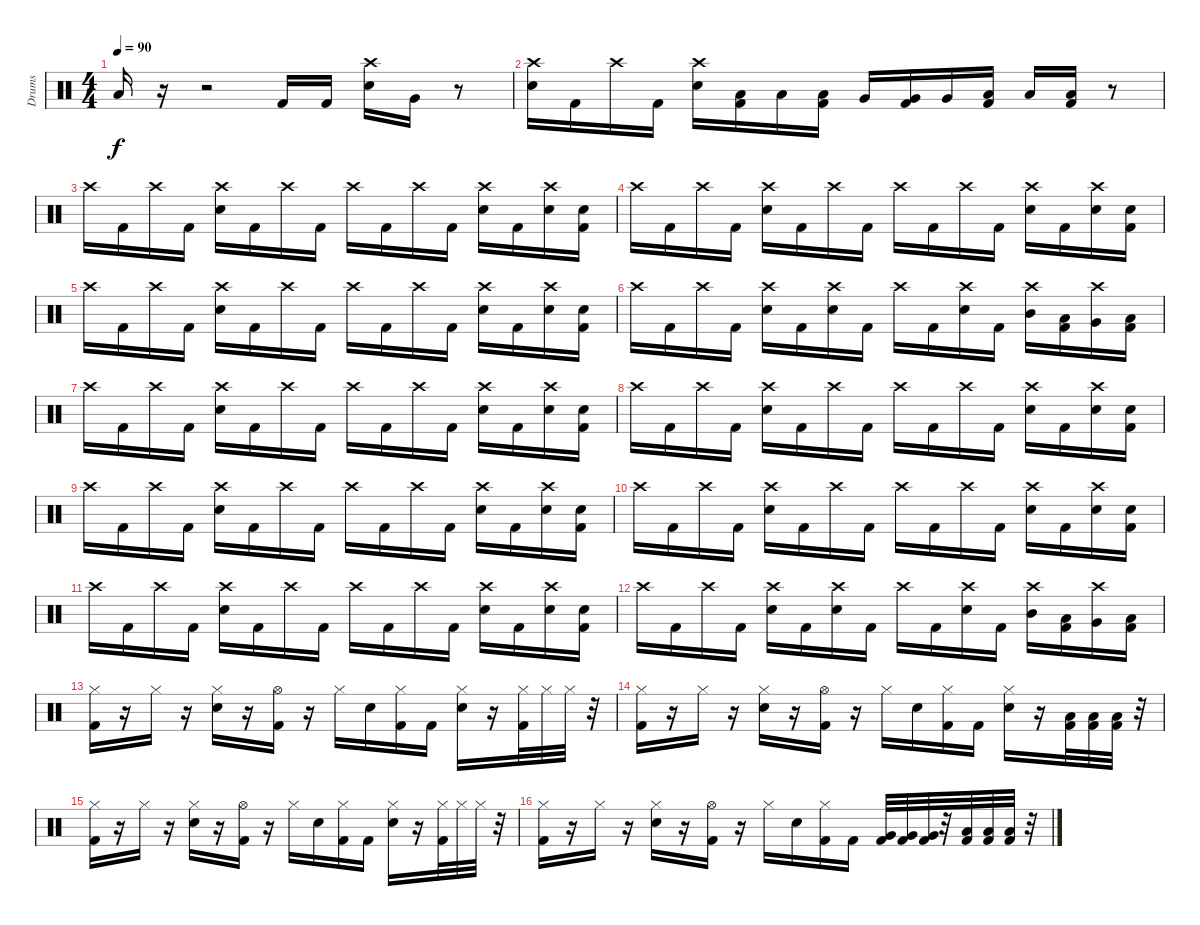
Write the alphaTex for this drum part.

\track ("Drums" "Drums") {instrument percussion}
\staff {score}
\articulation defaults
\ts (4 4)
\tempo 90
\clef neutral
\ks c "Low Floor Tom (hit)".16{dy f}
r.16 r.2 "Kick (hit) 2".16 "Kick (hit) 2".16 ("Crash high (hit)" "Electric Snare (hit)").16 "Very Low Tom (hit)".16 r.8 |
("Crash high (hit)" "Electric Snare (hit)").16 "Kick (hit) 2".16 "Crash high (hit)".16 "Kick (hit) 2".16 ("Crash high (hit)" "Electric Snare (hit)").16 ("Low Tom (hit)" "Kick (hit) 2").16 "Low Tom (hit)".16 ("Low Tom (hit)" "Kick (hit) 2").16 "Very Low Tom (hit)".16 ("Very Low Tom (hit)" "Kick (hit) 2").16 "Very Low Tom (hit)".16 ("Low Floor Tom (hit)" "Kick (hit) 2").16 "Low Floor Tom (hit)".16 ("Low Floor Tom (hit)" "Kick (hit) 2").16 r.8 |
"Crash high (hit)".16 "Kick (hit) 2".16 "Crash high (hit)".16 "Kick (hit) 2".16 ("Crash high (hit)" "Electric Snare (hit)").16 "Kick (hit) 2".16 "Crash high (hit)".16 "Kick (hit) 2".16 "Crash high (hit)".16 "Kick (hit) 2".16 "Crash high (hit)".16 "Kick (hit) 2".16 ("Crash high (hit)" "Electric Snare (hit)").16 "Kick (hit) 2".16 ("Crash high (hit)" "Electric Snare (hit)").16 ("Electric Snare (hit)" "Kick (hit) 2").16 |
"Crash high (hit)".16 "Kick (hit) 2".16 "Crash high (hit)".16 "Kick (hit) 2".16 ("Crash high (hit)" "Electric Snare (hit)").16 "Kick (hit) 2".16 "Crash high (hit)".16 "Kick (hit) 2".16 "Crash high (hit)".16 "Kick (hit) 2".16 "Crash high (hit)".16 "Kick (hit) 2".16 ("Crash high (hit)" "Electric Snare (hit)").16 "Kick (hit) 2".16 ("Crash high (hit)" "Electric Snare (hit)").16 ("Electric Snare (hit)" "Kick (hit) 2").16 |
"Crash high (hit)".16 "Kick (hit) 2".16 "Crash high (hit)".16 "Kick (hit) 2".16 ("Crash high (hit)" "Electric Snare (hit)").16 "Kick (hit) 2".16 "Crash high (hit)".16 "Kick (hit) 2".16 "Crash high (hit)".16 "Kick (hit) 2".16 "Crash high (hit)".16 "Kick (hit) 2".16 ("Crash high (hit)" "Electric Snare (hit)").16 "Kick (hit) 2".16 ("Crash high (hit)" "Electric Snare (hit)").16 ("Electric Snare (hit)" "Kick (hit) 2").16 |
"Crash high (hit)".16 "Kick (hit) 2".16 "Crash high (hit)".16 "Kick (hit) 2".16 ("Crash high (hit)" "Electric Snare (hit)").16 "Kick (hit) 2".16 ("Crash high (hit)" "Electric Snare (hit)").16 "Kick (hit) 2".16 "Crash high (hit)".16 "Kick (hit) 2".16 ("Crash high (hit)" "Electric Snare (hit)").16 "Kick (hit) 2".16 ("Crash high (hit)" "Mid Tom (hit)").16 ("Low Tom (hit)" "Kick (hit) 2").16 ("Crash high (hit)" "Very Low Tom (hit)").16 ("Low Floor Tom (hit)" "Kick (hit) 2").16 |
"Crash high (hit)".16 "Kick (hit) 2".16 "Crash high (hit)".16 "Kick (hit) 2".16 ("Crash high (hit)" "Electric Snare (hit)").16 "Kick (hit) 2".16 "Crash high (hit)".16 "Kick (hit) 2".16 "Crash high (hit)".16 "Kick (hit) 2".16 "Crash high (hit)".16 "Kick (hit) 2".16 ("Crash high (hit)" "Electric Snare (hit)").16 "Kick (hit) 2".16 ("Crash high (hit)" "Electric Snare (hit)").16 ("Electric Snare (hit)" "Kick (hit) 2").16 |
"Crash high (hit)".16 "Kick (hit) 2".16 "Crash high (hit)".16 "Kick (hit) 2".16 ("Crash high (hit)" "Electric Snare (hit)").16 "Kick (hit) 2".16 "Crash high (hit)".16 "Kick (hit) 2".16 "Crash high (hit)".16 "Kick (hit) 2".16 "Crash high (hit)".16 "Kick (hit) 2".16 ("Crash high (hit)" "Electric Snare (hit)").16 "Kick (hit) 2".16 ("Crash high (hit)" "Electric Snare (hit)").16 ("Electric Snare (hit)" "Kick (hit) 2").16 |
"Crash high (hit)".16 "Kick (hit) 2".16 "Crash high (hit)".16 "Kick (hit) 2".16 ("Crash high (hit)" "Electric Snare (hit)").16 "Kick (hit) 2".16 "Crash high (hit)".16 "Kick (hit) 2".16 "Crash high (hit)".16 "Kick (hit) 2".16 "Crash high (hit)".16 "Kick (hit) 2".16 ("Crash high (hit)" "Electric Snare (hit)").16 "Kick (hit) 2".16 ("Crash high (hit)" "Electric Snare (hit)").16 ("Electric Snare (hit)" "Kick (hit) 2").16 |
"Crash high (hit)".16 "Kick (hit) 2".16 "Crash high (hit)".16 "Kick (hit) 2".16 ("Crash high (hit)" "Electric Snare (hit)").16 "Kick (hit) 2".16 "Crash high (hit)".16 "Kick (hit) 2".16 "Crash high (hit)".16 "Kick (hit) 2".16 "Crash high (hit)".16 "Kick (hit) 2".16 ("Crash high (hit)" "Electric Snare (hit)").16 "Kick (hit) 2".16 ("Crash high (hit)" "Electric Snare (hit)").16 ("Electric Snare (hit)" "Kick (hit) 2").16 |
"Crash high (hit)".16 "Kick (hit) 2".16 "Crash high (hit)".16 "Kick (hit) 2".16 ("Crash high (hit)" "Electric Snare (hit)").16 "Kick (hit) 2".16 "Crash high (hit)".16 "Kick (hit) 2".16 "Crash high (hit)".16 "Kick (hit) 2".16 "Crash high (hit)".16 "Kick (hit) 2".16 ("Crash high (hit)" "Electric Snare (hit)").16 "Kick (hit) 2".16 ("Crash high (hit)" "Electric Snare (hit)").16 ("Electric Snare (hit)" "Kick (hit) 2").16 |
"Crash high (hit)".16 "Kick (hit) 2".16 "Crash high (hit)".16 "Kick (hit) 2".16 ("Crash high (hit)" "Electric Snare (hit)").16 "Kick (hit) 2".16 ("Crash high (hit)" "Electric Snare (hit)").16 "Kick (hit) 2".16 "Crash high (hit)".16 "Kick (hit) 2".16 ("Crash high (hit)" "Electric Snare (hit)").16 "Kick (hit) 2".16 ("Crash high (hit)" "Mid Tom (hit)").16 ("Low Tom (hit)" "Kick (hit) 2").16 ("Crash high (hit)" "Very Low Tom (hit)").16 ("Low Floor Tom (hit)" "Kick (hit) 2").16 |
("Hi-Hat (closed)" "Kick (hit) 2").16 r.16 "Hi-Hat (closed)".16 r.16 ("Hi-Hat (closed)" "Electric Snare (hit)").16 r.16 ("Hi-Hat (open)" "Kick (hit) 2").16 r.16 "Hi-Hat (closed)".16 "Electric Snare (hit)".16 ("Hi-Hat (closed)" "Kick (hit) 2").16 "Kick (hit) 2".16 ("Hi-Hat (closed)" "Electric Snare (hit)").16 r.16 ("Hi-Hat (closed)" "Kick (hit) 2").32 "Hi-Hat (closed)".32 "Hi-Hat (closed)".32 r.32 |
("Hi-Hat (closed)" "Kick (hit) 2").16 r.16 "Hi-Hat (closed)".16 r.16 ("Hi-Hat (closed)" "Electric Snare (hit)").16 r.16 ("Hi-Hat (open)" "Kick (hit) 2").16 r.16 "Hi-Hat (closed)".16 "Electric Snare (hit)".16 ("Hi-Hat (closed)" "Kick (hit) 2").16 "Kick (hit) 2".16 ("Hi-Hat (closed)" "Electric Snare (hit)").16 r.16 ("Low Floor Tom (hit)" "Kick (hit) 2").32 ("Low Floor Tom (hit)" "Kick (hit) 2").32 ("Low Floor Tom (hit)" "Kick (hit) 2").32 r.32 |
("Hi-Hat (closed)" "Kick (hit) 2").16 r.16 "Hi-Hat (closed)".16 r.16 ("Hi-Hat (closed)" "Electric Snare (hit)").16 r.16 ("Hi-Hat (open)" "Kick (hit) 2").16 r.16 "Hi-Hat (closed)".16 "Electric Snare (hit)".16 ("Hi-Hat (closed)" "Kick (hit) 2").16 "Kick (hit) 2".16 ("Hi-Hat (closed)" "Electric Snare (hit)").16 r.16 ("Hi-Hat (closed)" "Kick (hit) 2").32 "Hi-Hat (closed)".32 "Hi-Hat (closed)".32 r.32 |
("Hi-Hat (closed)" "Kick (hit) 2").16 r.16 "Hi-Hat (closed)".16 r.16 ("Hi-Hat (closed)" "Electric Snare (hit)").16 r.16 ("Hi-Hat (open)" "Kick (hit) 2").16 r.16 "Hi-Hat (closed)".16 "Electric Snare (hit)".16 ("Hi-Hat (closed)" "Kick (hit) 2").16 "Kick (hit) 2".16 ("Very Low Tom (hit)" "Kick (hit) 2").32 ("Very Low Tom (hit)" "Kick (hit) 2").32 ("Very Low Tom (hit)" "Kick (hit) 2").32 r.32 ("Low Floor Tom (hit)" "Kick (hit) 2").32 ("Low Floor Tom (hit)" "Kick (hit) 2").32 ("Low Floor Tom (hit)" "Kick (hit) 2").32 r.32
